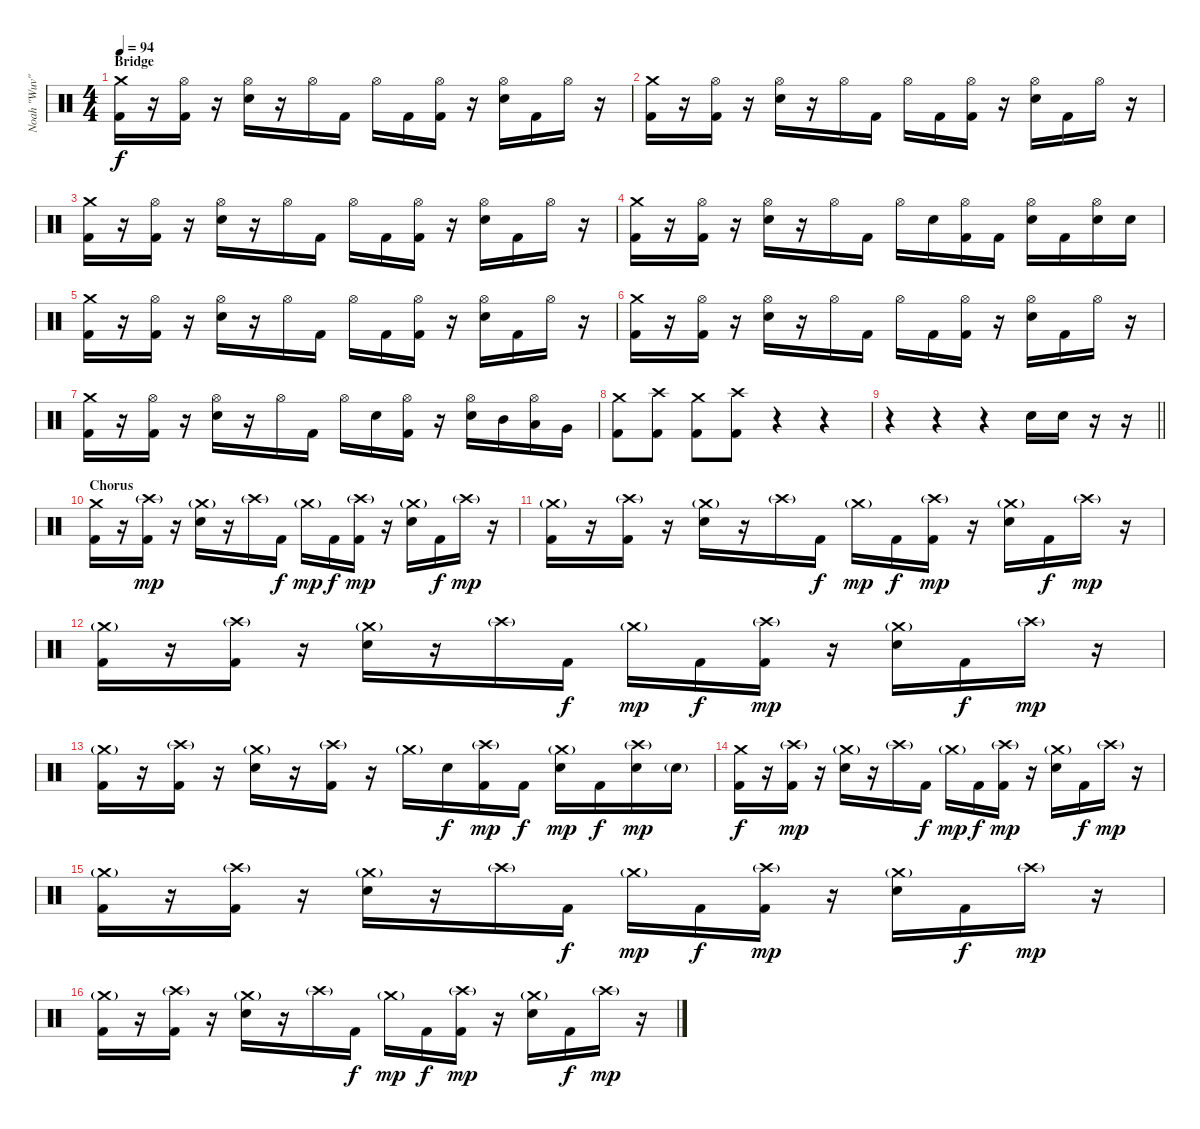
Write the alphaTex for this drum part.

\track ("Noah \"Wuv\" Bernardo" "Noah \"Wuv\"") {instrument percussion}
\staff {score}
\articulation defaults
\ts (4 4)
\section ("" "Bridge")
\tempo 94
\clef neutral
\ks c
("Crash medium (hit)" "Kick (hit) 2").16{dy f} r.16 ("Hi-Hat (open)" "Kick (hit) 2").16 r.16 ("Hi-Hat (open)" "Electric Snare (hit)").16 r.16 "Hi-Hat (open)".16 "Kick (hit) 2".16 "Hi-Hat (open)".16 "Kick (hit) 2".16 ("Hi-Hat (open)" "Kick (hit) 2").16 r.16 ("Hi-Hat (open)" "Electric Snare (hit)").16 "Kick (hit) 2".16 "Hi-Hat (open)".16 r.16 |
("Crash medium (hit)" "Kick (hit) 2").16 r.16 ("Hi-Hat (open)" "Kick (hit) 2").16 r.16 ("Hi-Hat (open)" "Electric Snare (hit)").16 r.16 "Hi-Hat (open)".16 "Kick (hit) 2".16 "Hi-Hat (open)".16 "Kick (hit) 2".16 ("Hi-Hat (open)" "Kick (hit) 2").16 r.16 ("Hi-Hat (open)" "Electric Snare (hit)").16 "Kick (hit) 2".16 "Hi-Hat (open)".16 r.16 |
("Crash medium (hit)" "Kick (hit) 2").16 r.16 ("Hi-Hat (open)" "Kick (hit) 2").16 r.16 ("Hi-Hat (open)" "Electric Snare (hit)").16 r.16 "Hi-Hat (open)".16 "Kick (hit) 2".16 "Hi-Hat (open)".16 "Kick (hit) 2".16 ("Hi-Hat (open)" "Kick (hit) 2").16 r.16 ("Hi-Hat (open)" "Electric Snare (hit)").16 "Kick (hit) 2".16 "Hi-Hat (open)".16 r.16 |
("Crash medium (hit)" "Kick (hit) 2").16 r.16 ("Hi-Hat (open)" "Kick (hit) 2").16 r.16 ("Hi-Hat (open)" "Electric Snare (hit)").16 r.16 "Hi-Hat (open)".16 "Kick (hit) 2".16 "Hi-Hat (open)".16 "Electric Snare (hit)".16 ("Hi-Hat (open)" "Kick (hit) 2").16 "Kick (hit) 2".16 ("Hi-Hat (open)" "Electric Snare (hit)").16 "Kick (hit) 2".16 ("Hi-Hat (open)" "Electric Snare (hit)").16 "Electric Snare (hit)".16 |
("Crash medium (hit)" "Kick (hit) 2").16 r.16 ("Hi-Hat (open)" "Kick (hit) 2").16 r.16 ("Hi-Hat (open)" "Electric Snare (hit)").16 r.16 "Hi-Hat (open)".16 "Kick (hit) 2".16 "Hi-Hat (open)".16 "Kick (hit) 2".16 ("Hi-Hat (open)" "Kick (hit) 2").16 r.16 ("Hi-Hat (open)" "Electric Snare (hit)").16 "Kick (hit) 2".16 "Hi-Hat (open)".16 r.16 |
("Crash medium (hit)" "Kick (hit) 2").16 r.16 ("Hi-Hat (open)" "Kick (hit) 2").16 r.16 ("Hi-Hat (open)" "Electric Snare (hit)").16 r.16 "Hi-Hat (open)".16 "Kick (hit) 2".16 "Hi-Hat (open)".16 "Kick (hit) 2".16 ("Hi-Hat (open)" "Kick (hit) 2").16 r.16 ("Hi-Hat (open)" "Electric Snare (hit)").16 "Kick (hit) 2".16 "Hi-Hat (open)".16 r.16 |
("Crash medium (hit)" "Kick (hit) 2").16 r.16 ("Hi-Hat (open)" "Kick (hit) 2").16 r.16 ("Hi-Hat (open)" "Electric Snare (hit)").16 r.16 "Hi-Hat (open)".16 "Kick (hit) 2".16 "Hi-Hat (open)".16 "Electric Snare (hit)".16 ("Hi-Hat (open)" "Kick (hit) 2").16 r.16 ("Hi-Hat (open)" "Electric Snare (hit)").16 "Mid Tom (hit)".16 ("Hi-Hat (open)" "Low Tom (hit)").16 "Very Low Tom (hit)".16 |
("Crash medium (hit)" "Kick (hit) 2").8 ("Crash high (hit)" "Kick (hit) 2").8 ("Crash medium (hit)" "Kick (hit) 2").8 ("Crash high (hit)" "Kick (hit) 2").8 r.4 r.4 |
\barLineRight lightlight
r.4 r.4 r.4 "Electric Snare (hit)".16 "Electric Snare (hit)".16 r.16 r.16 |
\section ("" "Chorus")
("Crash medium (hit)" "Kick (hit) 2").16 r.16 ("Crash high (hit)"{g} "Kick (hit) 2").16{dy mp} r.16 ("Crash medium (hit)"{g} "Electric Snare (hit)").16 r.16 "Crash high (hit)"{g}.16 "Kick (hit) 2".16{dy f} "Crash medium (hit)"{g}.16{dy mp} "Kick (hit) 2".16{dy f} ("Crash high (hit)"{g} "Kick (hit) 2").16{dy mp} r.16 ("Crash medium (hit)"{g} "Electric Snare (hit)").16 "Kick (hit) 2".16{dy f} "Crash high (hit)"{g}.16{dy mp} r.16 |
("Crash medium (hit)"{g} "Kick (hit) 2").16 r.16 ("Crash high (hit)"{g} "Kick (hit) 2").16 r.16 ("Crash medium (hit)"{g} "Electric Snare (hit)").16 r.16 "Crash high (hit)"{g}.16 "Kick (hit) 2".16{dy f} "Crash medium (hit)"{g}.16{dy mp} "Kick (hit) 2".16{dy f} ("Crash high (hit)"{g} "Kick (hit) 2").16{dy mp} r.16 ("Crash medium (hit)"{g} "Electric Snare (hit)").16 "Kick (hit) 2".16{dy f} "Crash high (hit)"{g}.16{dy mp} r.16 |
("Crash medium (hit)"{g} "Kick (hit) 2").16 r.16 ("Crash high (hit)"{g} "Kick (hit) 2").16 r.16 ("Crash medium (hit)"{g} "Electric Snare (hit)").16 r.16 "Crash high (hit)"{g}.16 "Kick (hit) 2".16{dy f} "Crash medium (hit)"{g}.16{dy mp} "Kick (hit) 2".16{dy f} ("Crash high (hit)"{g} "Kick (hit) 2").16{dy mp} r.16 ("Crash medium (hit)"{g} "Electric Snare (hit)").16 "Kick (hit) 2".16{dy f} "Crash high (hit)"{g}.16{dy mp} r.16 |
("Crash medium (hit)"{g} "Kick (hit) 2").16 r.16 ("Crash high (hit)"{g} "Kick (hit) 2").16 r.16 ("Crash medium (hit)"{g} "Electric Snare (hit)").16 r.16 ("Crash high (hit)"{g} "Kick (hit) 2").16 r.16 "Crash medium (hit)"{g}.16 "Electric Snare (hit)".16{dy f} ("Crash high (hit)"{g} "Kick (hit) 2").16{dy mp} "Kick (hit) 2".16{dy f} ("Crash medium (hit)"{g} "Electric Snare (hit)").16{dy mp} "Kick (hit) 2".16{dy f} ("Crash high (hit)"{g} "Electric Snare (hit)").16{dy mp} "Electric Snare (hit)"{g}.16 |
("Crash medium (hit)" "Kick (hit) 2").16{dy f} r.16 ("Crash high (hit)"{g} "Kick (hit) 2").16{dy mp} r.16 ("Crash medium (hit)"{g} "Electric Snare (hit)").16 r.16 "Crash high (hit)"{g}.16 "Kick (hit) 2".16{dy f} "Crash medium (hit)"{g}.16{dy mp} "Kick (hit) 2".16{dy f} ("Crash high (hit)"{g} "Kick (hit) 2").16{dy mp} r.16 ("Crash medium (hit)"{g} "Electric Snare (hit)").16 "Kick (hit) 2".16{dy f} "Crash high (hit)"{g}.16{dy mp} r.16 |
("Crash medium (hit)"{g} "Kick (hit) 2").16 r.16 ("Crash high (hit)"{g} "Kick (hit) 2").16 r.16 ("Crash medium (hit)"{g} "Electric Snare (hit)").16 r.16 "Crash high (hit)"{g}.16 "Kick (hit) 2".16{dy f} "Crash medium (hit)"{g}.16{dy mp} "Kick (hit) 2".16{dy f} ("Crash high (hit)"{g} "Kick (hit) 2").16{dy mp} r.16 ("Crash medium (hit)"{g} "Electric Snare (hit)").16 "Kick (hit) 2".16{dy f} "Crash high (hit)"{g}.16{dy mp} r.16 |
("Crash medium (hit)"{g} "Kick (hit) 2").16 r.16 ("Crash high (hit)"{g} "Kick (hit) 2").16 r.16 ("Crash medium (hit)"{g} "Electric Snare (hit)").16 r.16 "Crash high (hit)"{g}.16 "Kick (hit) 2".16{dy f} "Crash medium (hit)"{g}.16{dy mp} "Kick (hit) 2".16{dy f} ("Crash high (hit)"{g} "Kick (hit) 2").16{dy mp} r.16 ("Crash medium (hit)"{g} "Electric Snare (hit)").16 "Kick (hit) 2".16{dy f} "Crash high (hit)"{g}.16{dy mp} r.16
